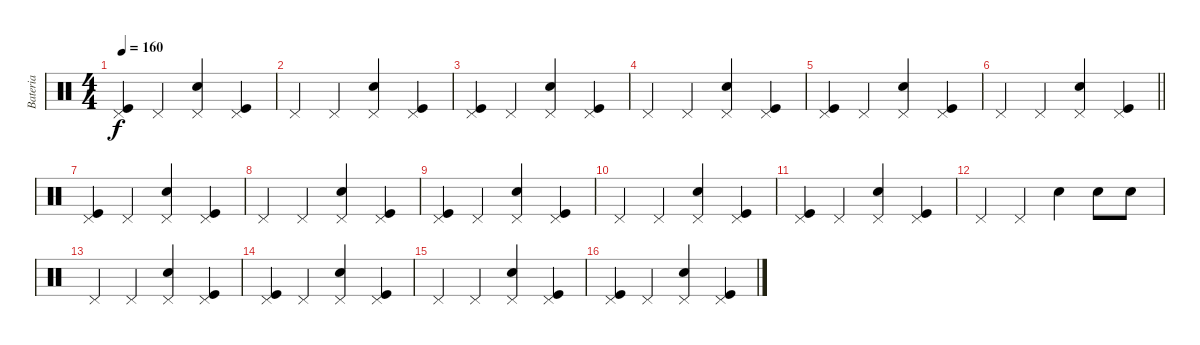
\track ("Bateria" "Bateria") {instrument percussion}
\staff {score}
\articulation defaults
\ts (4 4)
\tempo 160
\clef neutral
\ks c
("Kick (hit)" "Pedal Hi-Hat (hit)").4{dy f} "Pedal Hi-Hat (hit)".4 ("Snare (hit) 2" "Pedal Hi-Hat (hit)").4 ("Kick (hit)" "Pedal Hi-Hat (hit)").4 |
"Pedal Hi-Hat (hit)".4 "Pedal Hi-Hat (hit)".4 ("Snare (hit) 2" "Pedal Hi-Hat (hit)").4 ("Kick (hit)" "Pedal Hi-Hat (hit)").4 |
("Kick (hit)" "Pedal Hi-Hat (hit)").4 "Pedal Hi-Hat (hit)".4 ("Snare (hit) 2" "Pedal Hi-Hat (hit)").4 ("Kick (hit)" "Pedal Hi-Hat (hit)").4 |
"Pedal Hi-Hat (hit)".4 "Pedal Hi-Hat (hit)".4 ("Snare (hit) 2" "Pedal Hi-Hat (hit)").4 ("Kick (hit)" "Pedal Hi-Hat (hit)").4 |
("Kick (hit)" "Pedal Hi-Hat (hit)").4 "Pedal Hi-Hat (hit)".4 ("Snare (hit) 2" "Pedal Hi-Hat (hit)").4 ("Kick (hit)" "Pedal Hi-Hat (hit)").4 |
\barLineRight lightlight "Pedal Hi-Hat (hit)".4 "Pedal Hi-Hat (hit)".4
("Snare (hit) 2" "Pedal Hi-Hat (hit)").4 ("Kick (hit)" "Pedal Hi-Hat (hit)").4 |
("Kick (hit)" "Pedal Hi-Hat (hit)").4 "Pedal Hi-Hat (hit)".4 ("Snare (hit) 2" "Pedal Hi-Hat (hit)").4 ("Kick (hit)" "Pedal Hi-Hat (hit)").4 |
"Pedal Hi-Hat (hit)".4 "Pedal Hi-Hat (hit)".4 ("Snare (hit) 2" "Pedal Hi-Hat (hit)").4 ("Kick (hit)" "Pedal Hi-Hat (hit)").4 |
("Kick (hit)" "Pedal Hi-Hat (hit)").4 "Pedal Hi-Hat (hit)".4 ("Snare (hit) 2" "Pedal Hi-Hat (hit)").4 ("Kick (hit)" "Pedal Hi-Hat (hit)").4 |
"Pedal Hi-Hat (hit)".4 "Pedal Hi-Hat (hit)".4 ("Snare (hit) 2" "Pedal Hi-Hat (hit)").4 ("Kick (hit)" "Pedal Hi-Hat (hit)").4 |
("Kick (hit)" "Pedal Hi-Hat (hit)").4 "Pedal Hi-Hat (hit)".4 ("Snare (hit) 2" "Pedal Hi-Hat (hit)").4 ("Kick (hit)" "Pedal Hi-Hat (hit)").4 |
"Pedal Hi-Hat (hit)".4 "Pedal Hi-Hat (hit)".4 "Snare (hit) 2".4 "Snare (hit) 2".8 "Snare (hit) 2".8 |
"Pedal Hi-Hat (hit)".4 "Pedal Hi-Hat (hit)".4 ("Snare (hit) 2" "Pedal Hi-Hat (hit)").4 ("Kick (hit)" "Pedal Hi-Hat (hit)").4 |
("Kick (hit)" "Pedal Hi-Hat (hit)").4 "Pedal Hi-Hat (hit)".4 ("Snare (hit) 2" "Pedal Hi-Hat (hit)").4 ("Kick (hit)" "Pedal Hi-Hat (hit)").4 |
"Pedal Hi-Hat (hit)".4 "Pedal Hi-Hat (hit)".4 ("Snare (hit) 2" "Pedal Hi-Hat (hit)").4 ("Kick (hit)" "Pedal Hi-Hat (hit)").4 |
("Kick (hit)" "Pedal Hi-Hat (hit)").4 "Pedal Hi-Hat (hit)".4 ("Snare (hit) 2" "Pedal Hi-Hat (hit)").4 ("Kick (hit)" "Pedal Hi-Hat (hit)").4
